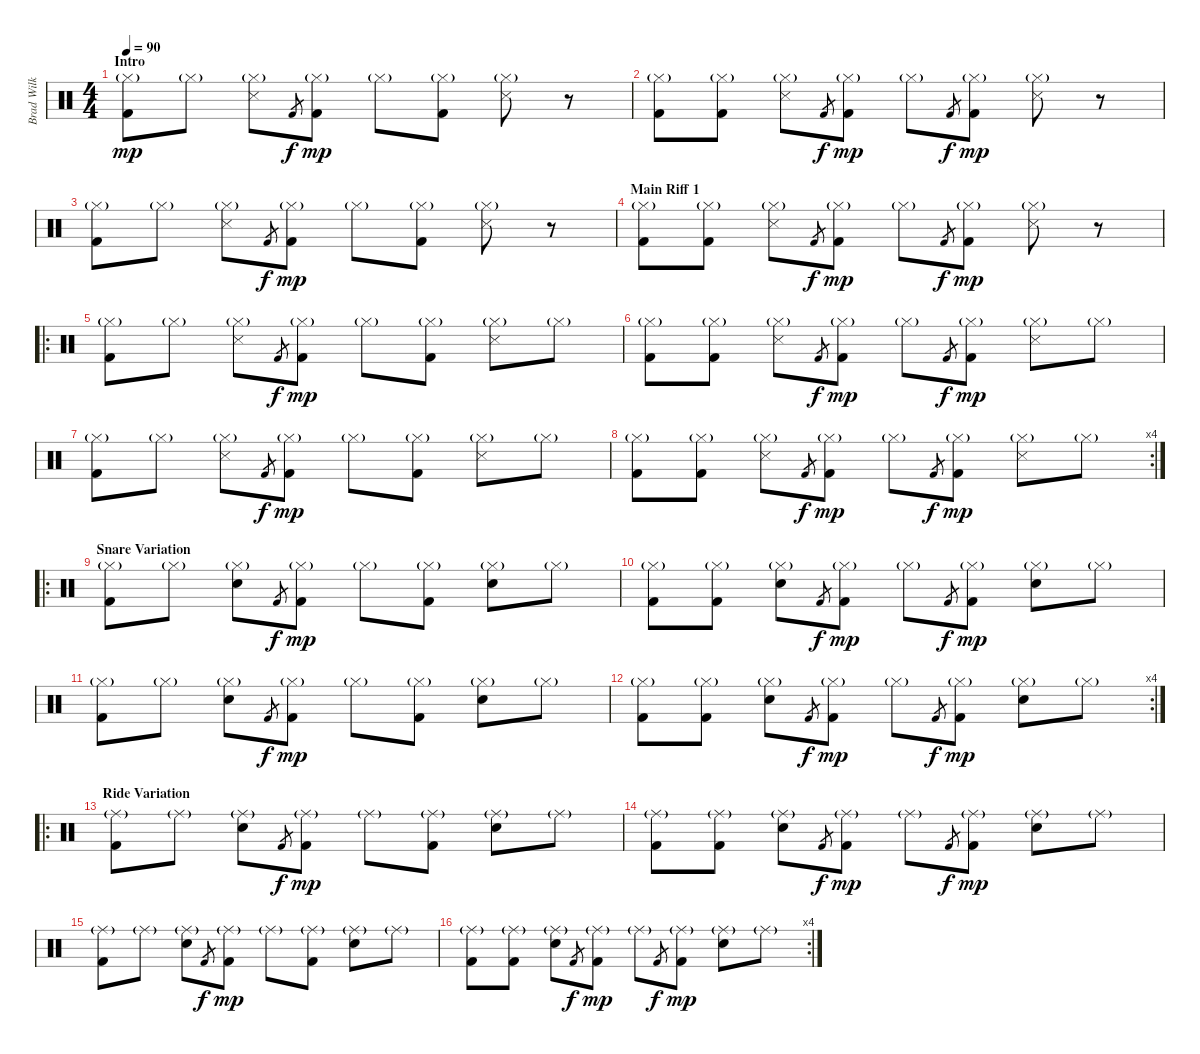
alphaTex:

\track ("Brad Wilk - Drums" "Brad Wilk ") {instrument percussion}
\staff {score}
\articulation defaults
\ts (4 4)
\section ("" "Intro")
\tempo 90
\clef neutral
\ks c
("Hi-Hat (closed)"{g} "Kick (hit) 2").8{dy mp} "Hi-Hat (closed)"{g}.8 ("Hi-Hat (closed)"{g} "Snare (side stick) 3").8 "Kick (hit) 2".8{gr dy f} ("Hi-Hat (closed)"{g} "Kick (hit) 2").8{dy mp} "Hi-Hat (closed)"{g}.8 ("Hi-Hat (closed)"{g} "Kick (hit) 2").8 ("Hi-Hat (closed)"{g} "Snare (side stick) 3").8 r.8 |
("Hi-Hat (closed)"{g} "Kick (hit) 2").8 ("Hi-Hat (closed)"{g} "Kick (hit) 2").8 ("Hi-Hat (closed)"{g} "Snare (side stick) 3").8 "Kick (hit) 2".8{gr dy f} ("Hi-Hat (closed)"{g} "Kick (hit) 2").8{dy mp} "Hi-Hat (closed)"{g}.8 "Kick (hit) 2".8{gr dy f} ("Hi-Hat (closed)"{g} "Kick (hit) 2").8{dy mp} ("Hi-Hat (closed)"{g} "Snare (side stick) 3").8 r.8 |
("Hi-Hat (closed)"{g} "Kick (hit) 2").8 "Hi-Hat (closed)"{g}.8 ("Hi-Hat (closed)"{g} "Snare (side stick) 3").8 "Kick (hit) 2".8{gr dy f} ("Hi-Hat (closed)"{g} "Kick (hit) 2").8{dy mp} "Hi-Hat (closed)"{g}.8 ("Hi-Hat (closed)"{g} "Kick (hit) 2").8 ("Hi-Hat (closed)"{g} "Snare (side stick) 3").8 r.8 |
\section ("" "Main Riff 1")
("Hi-Hat (closed)"{g} "Kick (hit) 2").8 ("Hi-Hat (closed)"{g} "Kick (hit) 2").8 ("Hi-Hat (closed)"{g} "Snare (side stick) 3").8 "Kick (hit) 2".8{gr dy f} ("Hi-Hat (closed)"{g} "Kick (hit) 2").8{dy mp} "Hi-Hat (closed)"{g}.8 "Kick (hit) 2".8{gr dy f} ("Hi-Hat (closed)"{g} "Kick (hit) 2").8{dy mp} ("Hi-Hat (closed)"{g} "Snare (side stick) 3").8 r.8 |
\ro
("Hi-Hat (closed)"{g} "Kick (hit) 2").8 "Hi-Hat (closed)"{g}.8 ("Hi-Hat (closed)"{g} "Snare (side stick) 3").8 "Kick (hit) 2".8{gr dy f} ("Hi-Hat (closed)"{g} "Kick (hit) 2").8{dy mp} "Hi-Hat (closed)"{g}.8 ("Hi-Hat (closed)"{g} "Kick (hit) 2").8 ("Hi-Hat (closed)"{g} "Snare (side stick) 3").8 "Hi-Hat (closed)"{g}.8 |
("Hi-Hat (closed)"{g} "Kick (hit) 2").8 ("Hi-Hat (closed)"{g} "Kick (hit) 2").8 ("Hi-Hat (closed)"{g} "Snare (side stick) 3").8 "Kick (hit) 2".8{gr dy f} ("Hi-Hat (closed)"{g} "Kick (hit) 2").8{dy mp} "Hi-Hat (closed)"{g}.8 "Kick (hit) 2".8{gr dy f} ("Hi-Hat (closed)"{g} "Kick (hit) 2").8{dy mp} ("Hi-Hat (closed)"{g} "Snare (side stick) 3").8 "Hi-Hat (closed)"{g}.8 |
("Hi-Hat (closed)"{g} "Kick (hit) 2").8 "Hi-Hat (closed)"{g}.8 ("Hi-Hat (closed)"{g} "Snare (side stick) 3").8 "Kick (hit) 2".8{gr dy f} ("Hi-Hat (closed)"{g} "Kick (hit) 2").8{dy mp} "Hi-Hat (closed)"{g}.8 ("Hi-Hat (closed)"{g} "Kick (hit) 2").8 ("Hi-Hat (closed)"{g} "Snare (side stick) 3").8 "Hi-Hat (closed)"{g}.8 |
\rc 4
("Hi-Hat (closed)"{g} "Kick (hit) 2").8 ("Hi-Hat (closed)"{g} "Kick (hit) 2").8 ("Hi-Hat (closed)"{g} "Snare (side stick) 3").8 "Kick (hit) 2".8{gr dy f} ("Hi-Hat (closed)"{g} "Kick (hit) 2").8{dy mp} "Hi-Hat (closed)"{g}.8 "Kick (hit) 2".8{gr dy f} ("Hi-Hat (closed)"{g} "Kick (hit) 2").8{dy mp} ("Hi-Hat (closed)"{g} "Snare (side stick) 3").8 "Hi-Hat (closed)"{g}.8 |
\ro
\section ("" "Snare Variation")
("Hi-Hat (closed)"{g} "Kick (hit) 2").8 "Hi-Hat (closed)"{g}.8 ("Hi-Hat (closed)"{g} "Electric Snare (hit)").8 "Kick (hit) 2".8{gr dy f} ("Hi-Hat (closed)"{g} "Kick (hit) 2").8{dy mp} "Hi-Hat (closed)"{g}.8 ("Hi-Hat (closed)"{g} "Kick (hit) 2").8 ("Hi-Hat (closed)"{g} "Electric Snare (hit)").8 "Hi-Hat (closed)"{g}.8 |
("Hi-Hat (closed)"{g} "Kick (hit) 2").8 ("Hi-Hat (closed)"{g} "Kick (hit) 2").8 ("Hi-Hat (closed)"{g} "Electric Snare (hit)").8 "Kick (hit) 2".8{gr dy f} ("Hi-Hat (closed)"{g} "Kick (hit) 2").8{dy mp} "Hi-Hat (closed)"{g}.8 "Kick (hit) 2".8{gr dy f} ("Hi-Hat (closed)"{g} "Kick (hit) 2").8{dy mp} ("Hi-Hat (closed)"{g} "Electric Snare (hit)").8 "Hi-Hat (closed)"{g}.8 |
("Hi-Hat (closed)"{g} "Kick (hit) 2").8 "Hi-Hat (closed)"{g}.8 ("Hi-Hat (closed)"{g} "Electric Snare (hit)").8 "Kick (hit) 2".8{gr dy f} ("Hi-Hat (closed)"{g} "Kick (hit) 2").8{dy mp} "Hi-Hat (closed)"{g}.8 ("Hi-Hat (closed)"{g} "Kick (hit) 2").8 ("Hi-Hat (closed)"{g} "Electric Snare (hit)").8 "Hi-Hat (closed)"{g}.8 |
\rc 4
("Hi-Hat (closed)"{g} "Kick (hit) 2").8 ("Hi-Hat (closed)"{g} "Kick (hit) 2").8 ("Hi-Hat (closed)"{g} "Electric Snare (hit)").8 "Kick (hit) 2".8{gr dy f} ("Hi-Hat (closed)"{g} "Kick (hit) 2").8{dy mp} "Hi-Hat (closed)"{g}.8 "Kick (hit) 2".8{gr dy f} ("Hi-Hat (closed)"{g} "Kick (hit) 2").8{dy mp} ("Hi-Hat (closed)"{g} "Electric Snare (hit)").8 "Hi-Hat (closed)"{g}.8 |
\ro
\section ("" "Ride Variation")
("Ride (middle)"{g} "Kick (hit) 2").8 "Ride (middle)"{g}.8 ("Ride (middle)"{g} "Electric Snare (hit)").8 "Kick (hit) 2".8{gr dy f} ("Ride (middle)"{g} "Kick (hit) 2").8{dy mp} "Ride (middle)"{g}.8 ("Ride (middle)"{g} "Kick (hit) 2").8 ("Ride (middle)"{g} "Electric Snare (hit)").8 "Ride (middle)"{g}.8 |
("Ride (middle)"{g} "Kick (hit) 2").8 ("Ride (middle)"{g} "Kick (hit) 2").8 ("Ride (middle)"{g} "Electric Snare (hit)").8 "Kick (hit) 2".8{gr dy f} ("Ride (middle)"{g} "Kick (hit) 2").8{dy mp} "Ride (middle)"{g}.8 "Kick (hit) 2".8{gr dy f} ("Ride (middle)"{g} "Kick (hit) 2").8{dy mp} ("Ride (middle)"{g} "Electric Snare (hit)").8 "Ride (middle)"{g}.8 |
("Ride (middle)"{g} "Kick (hit) 2").8 "Ride (middle)"{g}.8 ("Ride (middle)"{g} "Electric Snare (hit)").8 "Kick (hit) 2".8{gr dy f} ("Ride (middle)"{g} "Kick (hit) 2").8{dy mp} "Ride (middle)"{g}.8 ("Ride (middle)"{g} "Kick (hit) 2").8 ("Ride (middle)"{g} "Electric Snare (hit)").8 "Ride (middle)"{g}.8 |
\rc 4
("Ride (middle)"{g} "Kick (hit) 2").8 ("Ride (middle)"{g} "Kick (hit) 2").8 ("Ride (middle)"{g} "Electric Snare (hit)").8 "Kick (hit) 2".8{gr dy f} ("Ride (middle)"{g} "Kick (hit) 2").8{dy mp} "Ride (middle)"{g}.8 "Kick (hit) 2".8{gr dy f} ("Ride (middle)"{g} "Kick (hit) 2").8{dy mp} ("Ride (middle)"{g} "Electric Snare (hit)").8 "Ride (middle)"{g}.8
